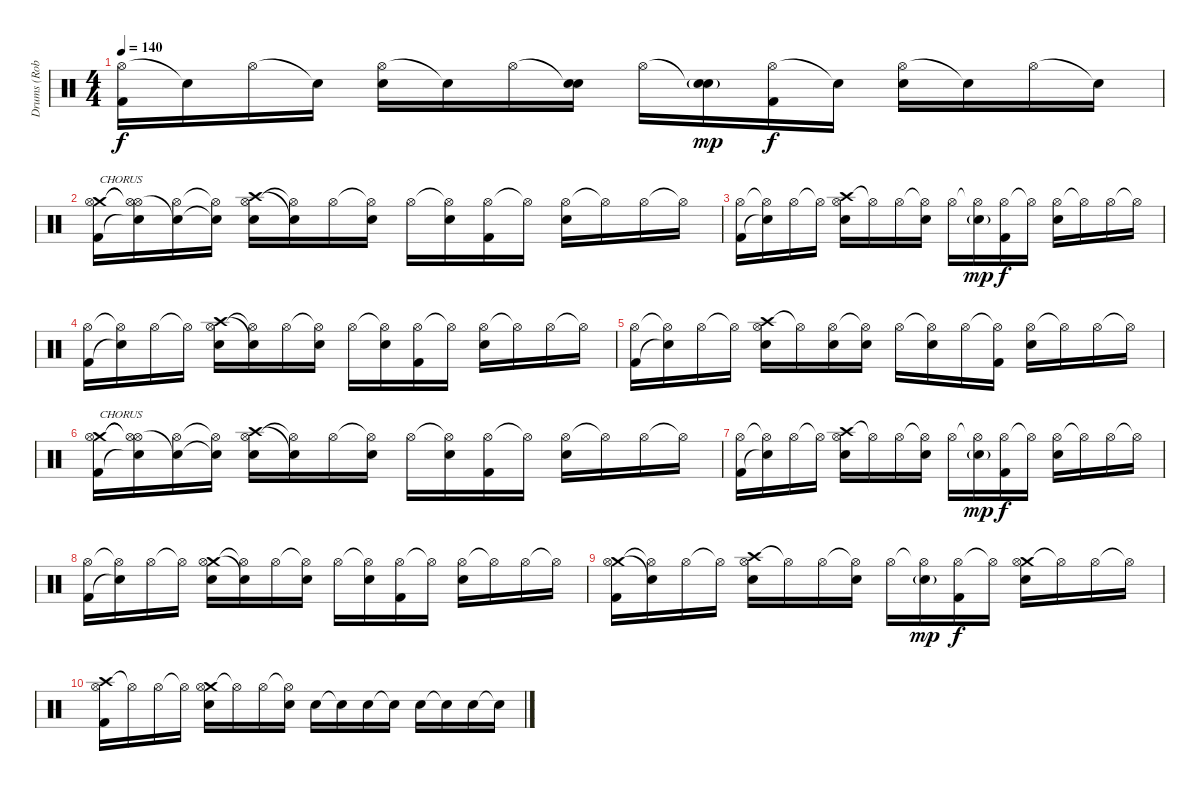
\track ("Drums (Rob Bourdon)" "Drums (Rob") {instrument percussion}
\staff {score}
\articulation defaults
\ts (4 4)
\tempo 140
\clef neutral
\ks c
("Hi-Hat (open)" "Kick (hit) 2").16{dy f} "Snare (hit)"{t}.16 "Hi-Hat (open)".16 "Snare (hit)"{t}.16 ("Hi-Hat (open)" "Electric Snare (hit)").16 "Snare (hit)"{t}.16 "Hi-Hat (open)".16 ("Snare (hit)"{t} "Electric Snare (hit)").16 "Hi-Hat (open)".16 ("Snare (hit)"{t} "Electric Snare (hit)"{g}).16{dy mp} ("Hi-Hat (open)" "Kick (hit) 2").16{dy f} "Snare (hit)"{t}.16 ("Hi-Hat (open)" "Electric Snare (hit)").16 "Snare (hit)"{t}.16 "Hi-Hat (open)".16 "Snare (hit)"{t}.16 |
("Crash medium (hit)" "Hi-Hat (open)" "Kick (hit) 2").16{txt "CHORUS" volume 14} ("Hi-Hat (open)"{t} "Hi-Hat (open)"{t} "Snare (hit)"{t}).16 ("Snare (hit)"{t} "Hi-Hat (open)").16 ("Snare (hit)"{t} "Hi-Hat (open)"{t}).16 ("Crash high (hit)" "Hi-Hat (open)" "Electric Snare (hit)").16 ("Snare (hit)"{t} "Hi-Hat (open)"{t}).16 "Hi-Hat (open)".16 ("Hi-Hat (open)"{t} "Electric Snare (hit)").16 "Hi-Hat (open)".16 ("Hi-Hat (open)"{t} "Electric Snare (hit)").16 ("Hi-Hat (open)" "Kick (hit) 2").16 "Hi-Hat (open)"{t}.16 ("Hi-Hat (open)" "Electric Snare (hit)").16 "Hi-Hat (open)"{t}.16 "Hi-Hat (open)".16 "Hi-Hat (open)"{t}.16 |
("Hi-Hat (open)" "Kick (hit) 2").16{volume 14} ("Hi-Hat (open)"{t} "Snare (hit)"{t}).16 "Hi-Hat (open)".16 "Hi-Hat (open)"{t}.16 ("Crash high (hit)" "Hi-Hat (open)" "Electric Snare (hit)").16 "Hi-Hat (open)"{t}.16 "Hi-Hat (open)".16 ("Hi-Hat (open)"{t} "Electric Snare (hit)").16 "Hi-Hat (open)".16 ("Hi-Hat (open)"{t} "Electric Snare (hit)"{g}).16{dy mp} ("Hi-Hat (open)" "Kick (hit) 2").16{dy f} "Hi-Hat (open)"{t}.16 ("Hi-Hat (open)" "Electric Snare (hit)").16 "Hi-Hat (open)"{t}.16 "Hi-Hat (open)".16 "Hi-Hat (open)"{t}.16 |
("Hi-Hat (open)" "Kick (hit) 2").16{volume 14} ("Hi-Hat (open)"{t} "Snare (hit)"{t}).16 "Hi-Hat (open)".16 "Hi-Hat (open)"{t}.16 ("Crash high (hit)" "Hi-Hat (open)" "Electric Snare (hit)").16 ("Snare (hit)"{t} "Hi-Hat (open)"{t}).16 "Hi-Hat (open)".16 ("Hi-Hat (open)"{t} "Electric Snare (hit)").16 "Hi-Hat (open)".16 ("Hi-Hat (open)"{t} "Electric Snare (hit)").16 ("Hi-Hat (open)" "Kick (hit) 2").16 "Hi-Hat (open)"{t}.16 ("Hi-Hat (open)" "Electric Snare (hit)").16 "Hi-Hat (open)"{t}.16 "Hi-Hat (open)".16 "Hi-Hat (open)"{t}.16 |
("Hi-Hat (open)" "Kick (hit) 2").16{volume 14} ("Hi-Hat (open)"{t} "Snare (hit)"{t}).16 "Hi-Hat (open)".16 "Hi-Hat (open)"{t}.16 ("Crash high (hit)" "Hi-Hat (open)" "Electric Snare (hit)").16 "Hi-Hat (open)"{t}.16 ("Hi-Hat (open)" "Electric Snare (hit)").16 ("Hi-Hat (open)"{t} "Electric Snare (hit)").16 "Hi-Hat (open)".16 ("Hi-Hat (open)"{t} "Electric Snare (hit)").16 "Hi-Hat (open)".16 ("Hi-Hat (open)"{t} "Kick (hit) 2").16 ("Hi-Hat (open)" "Electric Snare (hit)").16 "Hi-Hat (open)"{t}.16 "Hi-Hat (open)".16 "Hi-Hat (open)"{t}.16 |
("Crash medium (hit)" "Hi-Hat (open)" "Kick (hit) 2").16{txt "CHORUS" volume 14} ("Hi-Hat (open)"{t} "Hi-Hat (open)"{t} "Snare (hit)"{t}).16 ("Snare (hit)"{t} "Hi-Hat (open)").16 ("Snare (hit)"{t} "Hi-Hat (open)"{t}).16 ("Crash high (hit)" "Hi-Hat (open)" "Electric Snare (hit)").16 ("Snare (hit)"{t} "Hi-Hat (open)"{t}).16 "Hi-Hat (open)".16 ("Hi-Hat (open)"{t} "Electric Snare (hit)").16 "Hi-Hat (open)".16 ("Hi-Hat (open)"{t} "Electric Snare (hit)").16 ("Hi-Hat (open)" "Kick (hit) 2").16 "Hi-Hat (open)"{t}.16 ("Hi-Hat (open)" "Electric Snare (hit)").16 "Hi-Hat (open)"{t}.16 "Hi-Hat (open)".16 "Hi-Hat (open)"{t}.16 |
("Hi-Hat (open)" "Kick (hit) 2").16{volume 14} ("Hi-Hat (open)"{t} "Snare (hit)"{t}).16 "Hi-Hat (open)".16 "Hi-Hat (open)"{t}.16 ("Crash high (hit)" "Hi-Hat (open)" "Electric Snare (hit)").16 "Hi-Hat (open)"{t}.16 "Hi-Hat (open)".16 ("Hi-Hat (open)"{t} "Electric Snare (hit)").16 "Hi-Hat (open)".16 ("Hi-Hat (open)"{t} "Electric Snare (hit)"{g}).16{dy mp} ("Hi-Hat (open)" "Kick (hit) 2").16{dy f} "Hi-Hat (open)"{t}.16 ("Hi-Hat (open)" "Electric Snare (hit)").16 "Hi-Hat (open)"{t}.16 "Hi-Hat (open)".16 "Hi-Hat (open)"{t}.16 |
("Hi-Hat (open)" "Kick (hit) 2").16{volume 14} ("Hi-Hat (open)"{t} "Snare (hit)"{t}).16 "Hi-Hat (open)".16 "Hi-Hat (open)"{t}.16 ("Crash medium (hit)" "Hi-Hat (open)" "Electric Snare (hit)").16 ("Snare (hit)"{t} "Hi-Hat (open)"{t}).16 "Hi-Hat (open)".16 ("Hi-Hat (open)"{t} "Electric Snare (hit)").16 "Hi-Hat (open)".16 ("Hi-Hat (open)"{t} "Electric Snare (hit)").16 ("Hi-Hat (open)" "Kick (hit) 2").16 "Hi-Hat (open)"{t}.16 ("Hi-Hat (open)" "Electric Snare (hit)").16 "Hi-Hat (open)"{t}.16 "Hi-Hat (open)".16 "Hi-Hat (open)"{t}.16 |
("Crash medium (hit)" "Hi-Hat (open)" "Kick (hit) 2").16{volume 14} ("Hi-Hat (open)"{t} "Snare (hit)"{t}).16 "Hi-Hat (open)".16 "Hi-Hat (open)"{t}.16 ("Crash high (hit)" "Hi-Hat (open)" "Electric Snare (hit)").16 "Hi-Hat (open)"{t}.16 "Hi-Hat (open)".16 ("Hi-Hat (open)"{t} "Electric Snare (hit)").16 "Hi-Hat (open)".16 ("Hi-Hat (open)"{t} "Electric Snare (hit)"{g}).16{dy mp} ("Hi-Hat (open)" "Kick (hit) 2").16{dy f} "Hi-Hat (open)"{t}.16 ("Crash medium (hit)" "Hi-Hat (open)" "Electric Snare (hit)").16 "Hi-Hat (open)"{t}.16 "Hi-Hat (open)".16 "Hi-Hat (open)"{t}.16 |
("Crash high (hit)" "Hi-Hat (open)" "Kick (hit) 2").16 "Hi-Hat (open)"{t}.16 "Hi-Hat (open)".16 "Hi-Hat (open)"{t}.16 ("Crash medium (hit)" "Hi-Hat (open)" "Electric Snare (hit)").16 "Hi-Hat (open)"{t}.16 "Hi-Hat (open)".16 ("Hi-Hat (open)"{t} "Electric Snare (hit)").16 "Electric Snare (hit)".16 "Snare (hit)"{t}.16 "Electric Snare (hit)".16 "Snare (hit)"{t}.16 "Electric Snare (hit)".16 "Snare (hit)"{t}.16 "Electric Snare (hit)".16 "Snare (hit)"{t}.16
